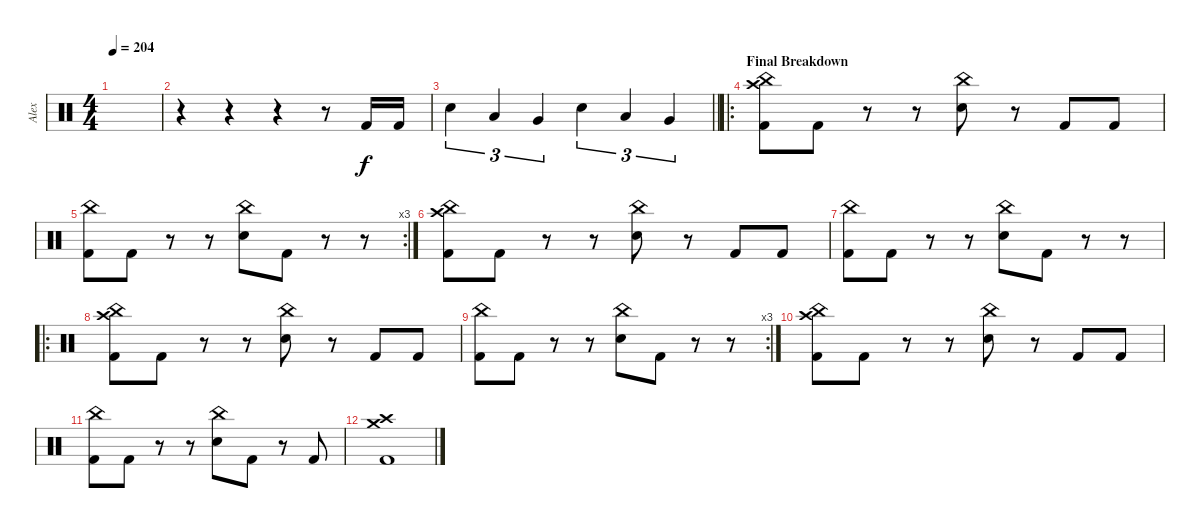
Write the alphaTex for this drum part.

\track ("Alex" "Alex") {instrument percussion}
\staff {score}
\articulation defaults
\ts (4 4)
\tempo 204
\clef neutral
\ks c
|
r.4 r.4 r.4 r.8 "Kick (hit) 2".16 "Kick (hit) 2".16 |
\barLineRight lightlight "Electric Snare (hit)".4{tu (3 2)} "Low Tom (hit)".4{tu (3 2)} "Very Low Tom (hit)".4{tu (3 2)} "Electric Snare (hit)".4{tu (3 2)} "Low Tom (hit)".4{tu (3 2)} "Very Low Tom (hit)".4{tu (3 2)}
|
\ro
\section ("" "Final Breakdown")
("Crash high (hit)" "China (hit)" "Kick (hit) 2").8 "Kick (hit) 2".8 r.8 r.8 ("China (hit)" "Electric Snare (hit)").8 r.8 "Kick (hit) 2".8 "Kick (hit) 2".8 |
\rc 3
("China (hit)" "Kick (hit) 2").8 "Kick (hit) 2".8 r.8 r.8 ("China (hit)" "Electric Snare (hit)").8 "Kick (hit) 2".8 r.8 r.8 |
("Crash high (hit)" "China (hit)" "Kick (hit) 2").8 "Kick (hit) 2".8 r.8 r.8 ("China (hit)" "Electric Snare (hit)").8 r.8 "Kick (hit) 2".8 "Kick (hit) 2".8 |
("China (hit)" "Kick (hit) 2").8 "Kick (hit) 2".8 r.8 r.8 ("China (hit)" "Electric Snare (hit)").8 "Kick (hit) 2".8 r.8 r.8 |
\ro
("Crash high (hit)" "China (hit)" "Kick (hit) 2").8 "Kick (hit) 2".8 r.8 r.8 ("China (hit)" "Electric Snare (hit)").8 r.8 "Kick (hit) 2".8 "Kick (hit) 2".8 |
\rc 3
("China (hit)" "Kick (hit) 2").8 "Kick (hit) 2".8 r.8 r.8 ("China (hit)" "Electric Snare (hit)").8 "Kick (hit) 2".8 r.8 r.8 |
("Crash high (hit)" "China (hit)" "Kick (hit) 2").8 "Kick (hit) 2".8 r.8 r.8 ("China (hit)" "Electric Snare (hit)").8 r.8 "Kick (hit) 2".8 "Kick (hit) 2".8 |
("China (hit)" "Kick (hit) 2").8 "Kick (hit) 2".8 r.8 r.8 ("China (hit)" "Electric Snare (hit)").8 "Kick (hit) 2".8 r.8 "Kick (hit) 2".8 |
("Crash high (hit)" "Crash medium (hit)" "Kick (hit) 2").1
